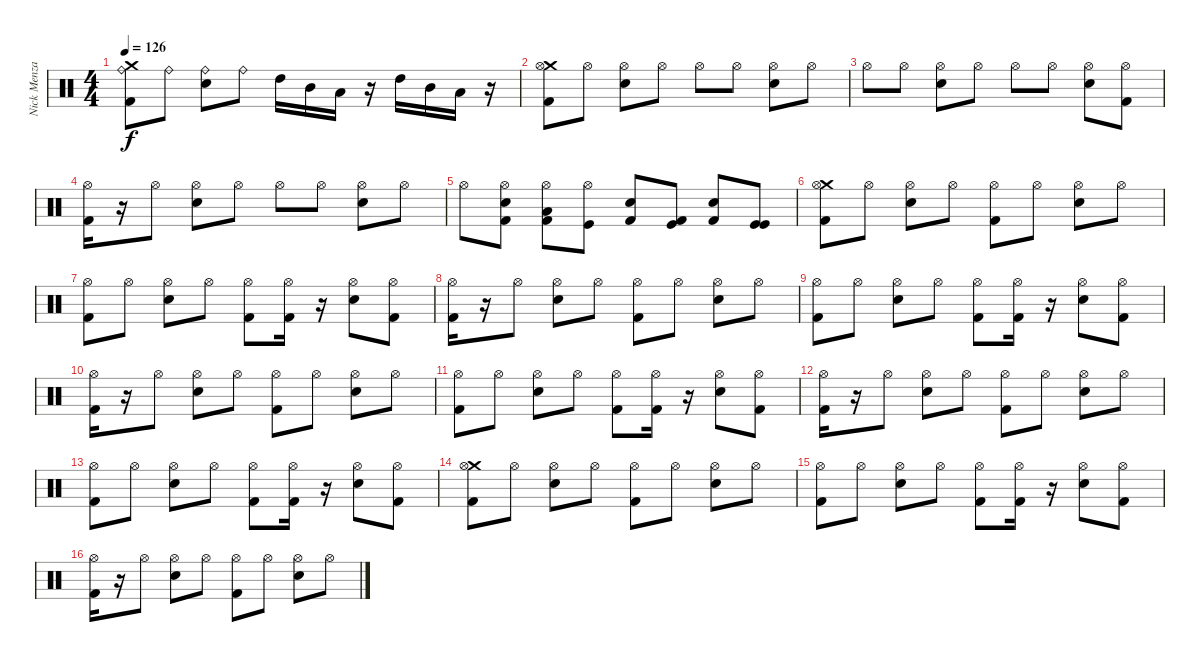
\track ("Nick Menza" "Nick Menza") {instrument percussion}
\staff {score}
\articulation defaults
\ts (4 4)
\tempo 126
\clef neutral
\ks c
("Crash medium (hit)" "Ride (bell)" "Kick (hit) 2").8{dy f} "Ride (bell)".8 ("Snare (hit) 2" "Ride (bell)").8 "Ride (bell)".8 "High Tom (hit)".16 "Mid Tom (hit)".16 "Low Tom (hit)".16 r.16 "High Tom (hit)".16 "Mid Tom (hit)".16 "Low Tom (hit)".16 r.16 |
("Crash medium (hit)" "Hi-Hat (open)" "Kick (hit) 2").8 "Hi-Hat (open)".8 ("Snare (hit) 2" "Hi-Hat (open)").8 "Hi-Hat (open)".8 "Hi-Hat (open)".8 "Hi-Hat (open)".8 ("Electric Snare (hit)" "Hi-Hat (open)").8 "Hi-Hat (open)".8 |
"Hi-Hat (open)".8 "Hi-Hat (open)".8 ("Electric Snare (hit)" "Hi-Hat (open)").8 "Hi-Hat (open)".8 "Hi-Hat (open)".8 "Hi-Hat (open)".8 ("Electric Snare (hit)" "Hi-Hat (open)").8 ("Hi-Hat (open)" "Kick (hit) 2").8 |
("Hi-Hat (open)" "Kick (hit) 2").16 r.16 "Hi-Hat (open)".8 ("Electric Snare (hit)" "Hi-Hat (open)").8 "Hi-Hat (open)".8 "Hi-Hat (open)".8 "Hi-Hat (open)".8 ("Electric Snare (hit)" "Hi-Hat (open)").8 "Hi-Hat (open)".8 |
"Hi-Hat (open)".8 ("Hi-Hat (open)" "Kick (hit) 2" "Electric Snare (hit)").8 ("Hi-Hat (open)" "Kick (hit) 2" "Low Tom (hit)").8 ("Hi-Hat (open)" "Kick (hit)").8 ("Electric Snare (hit)" "Kick (hit) 2").8 ("Kick (hit)" "Kick (hit) 2").8 ("Electric Snare (hit)" "Kick (hit) 2").8 ("Kick (hit)" "Kick (hit)").8 |
("Crash medium (hit)" "Hi-Hat (open)" "Kick (hit) 2").8 "Hi-Hat (open)".8 ("Electric Snare (hit)" "Hi-Hat (open)").8 "Hi-Hat (open)".8 ("Hi-Hat (open)" "Kick (hit) 2").8 "Hi-Hat (open)".8 ("Electric Snare (hit)" "Hi-Hat (open)").8 "Hi-Hat (open)".8 |
("Hi-Hat (open)" "Kick (hit) 2").8 "Hi-Hat (open)".8 ("Electric Snare (hit)" "Hi-Hat (open)").8 "Hi-Hat (open)".8 ("Hi-Hat (open)" "Kick (hit) 2").8 ("Hi-Hat (open)" "Kick (hit) 2").16 r.16 ("Electric Snare (hit)" "Hi-Hat (open)").8 ("Hi-Hat (open)" "Kick (hit) 2").8 |
("Hi-Hat (open)" "Kick (hit) 2").16 r.16 "Hi-Hat (open)".8 ("Electric Snare (hit)" "Hi-Hat (open)").8 "Hi-Hat (open)".8 ("Hi-Hat (open)" "Kick (hit) 2").8 "Hi-Hat (open)".8 ("Electric Snare (hit)" "Hi-Hat (open)").8 "Hi-Hat (open)".8 |
("Hi-Hat (open)" "Kick (hit) 2").8 "Hi-Hat (open)".8 ("Electric Snare (hit)" "Hi-Hat (open)").8 "Hi-Hat (open)".8 ("Hi-Hat (open)" "Kick (hit) 2").8 ("Hi-Hat (open)" "Kick (hit) 2").16 r.16 ("Electric Snare (hit)" "Hi-Hat (open)").8 ("Hi-Hat (open)" "Kick (hit) 2").8 |
("Hi-Hat (open)" "Kick (hit) 2").16 r.16 "Hi-Hat (open)".8 ("Electric Snare (hit)" "Hi-Hat (open)").8 "Hi-Hat (open)".8 ("Hi-Hat (open)" "Kick (hit) 2").8 "Hi-Hat (open)".8 ("Electric Snare (hit)" "Hi-Hat (open)").8 "Hi-Hat (open)".8 |
("Hi-Hat (open)" "Kick (hit) 2").8 "Hi-Hat (open)".8 ("Electric Snare (hit)" "Hi-Hat (open)").8 "Hi-Hat (open)".8 ("Hi-Hat (open)" "Kick (hit) 2").8 ("Hi-Hat (open)" "Kick (hit) 2").16 r.16 ("Electric Snare (hit)" "Hi-Hat (open)").8 ("Hi-Hat (open)" "Kick (hit) 2").8 |
("Hi-Hat (open)" "Kick (hit) 2").16 r.16 "Hi-Hat (open)".8 ("Electric Snare (hit)" "Hi-Hat (open)").8 "Hi-Hat (open)".8 ("Hi-Hat (open)" "Kick (hit) 2").8 "Hi-Hat (open)".8 ("Electric Snare (hit)" "Hi-Hat (open)").8 "Hi-Hat (open)".8 |
("Hi-Hat (open)" "Kick (hit) 2").8 "Hi-Hat (open)".8 ("Electric Snare (hit)" "Hi-Hat (open)").8 "Hi-Hat (open)".8 ("Hi-Hat (open)" "Kick (hit) 2").8 ("Hi-Hat (open)" "Kick (hit) 2").16 r.16 ("Electric Snare (hit)" "Hi-Hat (open)").8 ("Hi-Hat (open)" "Kick (hit) 2").8 |
("Crash medium (hit)" "Hi-Hat (open)" "Kick (hit) 2").8 "Hi-Hat (open)".8 ("Electric Snare (hit)" "Hi-Hat (open)").8 "Hi-Hat (open)".8 ("Hi-Hat (open)" "Kick (hit) 2").8 "Hi-Hat (open)".8 ("Electric Snare (hit)" "Hi-Hat (open)").8 "Hi-Hat (open)".8 |
("Hi-Hat (open)" "Kick (hit) 2").8 "Hi-Hat (open)".8 ("Electric Snare (hit)" "Hi-Hat (open)").8 "Hi-Hat (open)".8 ("Hi-Hat (open)" "Kick (hit) 2").8 ("Hi-Hat (open)" "Kick (hit) 2").16 r.16 ("Electric Snare (hit)" "Hi-Hat (open)").8 ("Hi-Hat (open)" "Kick (hit) 2").8 |
("Hi-Hat (open)" "Kick (hit) 2").16 r.16 "Hi-Hat (open)".8 ("Electric Snare (hit)" "Hi-Hat (open)").8 "Hi-Hat (open)".8 ("Hi-Hat (open)" "Kick (hit) 2").8 "Hi-Hat (open)".8 ("Electric Snare (hit)" "Hi-Hat (open)").8 "Hi-Hat (open)".8
